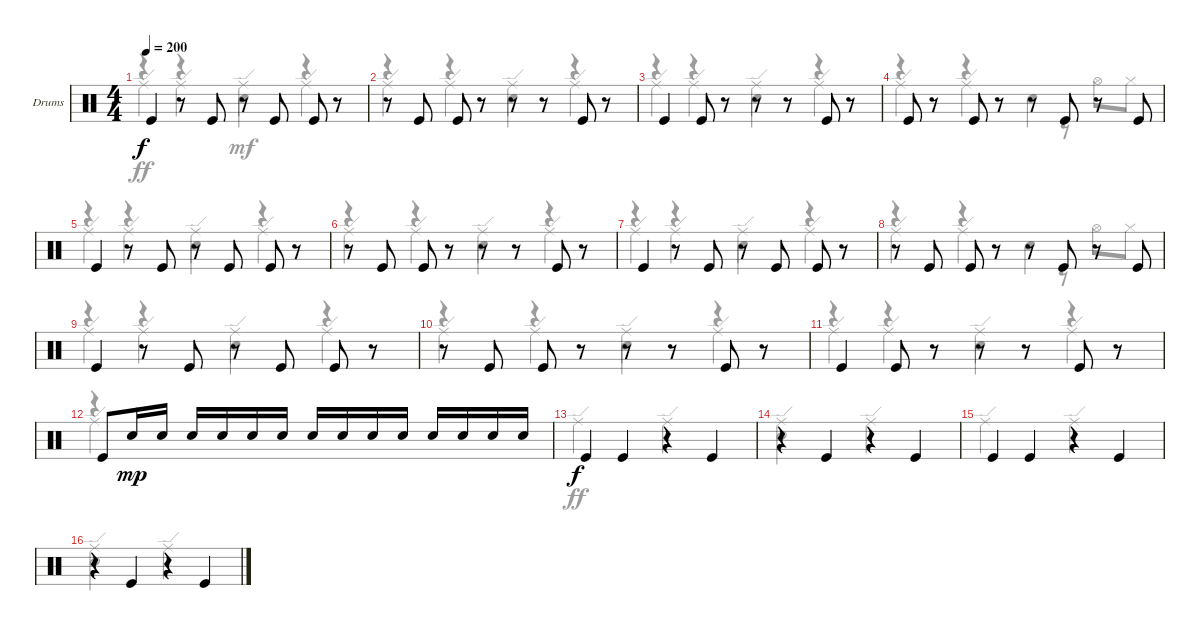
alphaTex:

\defaultSystemsLayout 4
\bracketExtendMode groupsimilarinstruments
\firstSystemTrackNameOrientation horizontal
\otherSystemsTrackNameOrientation horizontal
\track ("Drum" "Drums") {instrument percussion}
\staff {score}
\articulation defaults
\voice
\ts (4 4)
\tempo 200
\clef neutral
\ks c "Kick (hit)".4{dy f}
r.8 "Kick (hit)".8 r.8 "Kick (hit)".8 "Kick (hit)".8 r.8 |
r.8 "Kick (hit)".8 "Kick (hit)".8 r.8 r.8 r.8 "Kick (hit)".8 r.8 |
"Kick (hit)".4 "Kick (hit)".8 r.8 r.8 r.8 "Kick (hit)".8 r.8 |
"Kick (hit)".8 r.8 "Kick (hit)".8 r.8 r.8 "Kick (hit)".8 r.8 "Kick (hit)".8 |
"Kick (hit)".4 r.8 "Kick (hit)".8 r.8 "Kick (hit)".8 "Kick (hit)".8 r.8 |
r.8 "Kick (hit)".8 "Kick (hit)".8 r.8 r.8 r.8 "Kick (hit)".8 r.8 |
"Kick (hit)".4 r.8 "Kick (hit)".8 r.8 "Kick (hit)".8 "Kick (hit)".8 r.8 |
r.8 "Kick (hit)".8 "Kick (hit)".8 r.8 r.8 "Kick (hit)".8 r.8 "Kick (hit)".8 |
"Kick (hit)".4 r.8 "Kick (hit)".8 r.8 "Kick (hit)".8 "Kick (hit)".8 r.8 |
r.8 "Kick (hit)".8 "Kick (hit)".8 r.8 r.8 r.8 "Kick (hit)".8 r.8 |
"Kick (hit)".4 "Kick (hit)".8 r.8 r.8 r.8 "Kick (hit)".8 r.8 |
"Kick (hit)".8 "Snare (hit) 2".16{dy mp} "Snare (hit) 2".16 "Snare (hit) 2".16 "Snare (hit) 2".16 "Snare (hit) 2".16 "Snare (hit) 2".16 "Snare (hit) 2".16 "Snare (hit) 2".16 "Snare (hit) 2".16 "Snare (hit) 2".16 "Snare (hit) 2".16 "Snare (hit) 2".16 "Snare (hit) 2".16 "Snare (hit) 2".16 |
"Kick (hit)".4{dy f} "Kick (hit)".4 r.4 "Kick (hit)".4 |
r.4 "Kick (hit)".4 r.4 "Kick (hit)".4 |
"Kick (hit)".4 "Kick (hit)".4 r.4 "Kick (hit)".4 |
r.4 "Kick (hit)".4 r.4 "Kick (hit)".4
\voice
\clef neutral
\ottava regular
\simile none
\ks c
r.4{dy mf} r.4 "Snare (hit) 2".4 r.4 |
r.4 r.4 "Snare (hit) 2".4 r.4 |
r.4 r.4 "Snare (hit) 2".4 r.4 |
r.4 r.4 "Snare (hit) 2".4 |
r.4 r.4 "Snare (hit) 2".4 r.4 |
r.4 r.4 "Snare (hit) 2".4 r.4 |
r.4 r.4 "Snare (hit) 2".4 r.4 |
r.4 r.4 "Snare (hit) 2".4 |
r.4 r.4 "Snare (hit) 2".4 r.4 |
r.4 r.4 "Snare (hit) 2".4 r.4 |
r.4 r.4 "Snare (hit) 2".4 r.4 |
r.4 |
"Ride (edge)".2{dy ff} "Ride (edge)".2 |
("Snare (hit) 2" "Ride (edge)").2 "Ride (edge)".2 |
"Ride (edge)".2 "Ride (edge)".2 |
("Snare (hit) 2" "Ride (edge)").2 "Ride (edge)".2
\voice
\clef neutral
\ottava regular
\simile none
\ks c "Ride (edge)".4{dy ff} "Ride (edge)".4 "Ride (edge)".4 "Ride (edge)".4
|
"Ride (edge)".4 "Ride (edge)".4 "Ride (edge)".4 "Ride (edge)".4 |
"Ride (edge)".4 "Ride (edge)".4 "Ride (edge)".4 "Ride (edge)".4 |
"Ride (edge)".4 "Ride (edge)".4 r.8 r.8 "Hi-Hat (open)".8 "Hi-Hat (closed)".8 |
"Ride (edge)".4 "Ride (edge)".4 "Ride (edge)".4 "Ride (edge)".4 |
"Ride (edge)".4 "Ride (edge)".4 "Ride (edge)".4 "Ride (edge)".4 |
"Ride (edge)".4 "Ride (edge)".4 "Ride (edge)".4 "Ride (edge)".4 |
"Ride (edge)".4 "Ride (edge)".4 r.8 r.8 "Hi-Hat (open)".8 "Hi-Hat (closed)".8 |
"Ride (edge)".4 "Ride (edge)".4 "Ride (edge)".4 "Ride (edge)".4 |
"Ride (edge)".4 "Ride (edge)".4 "Ride (edge)".4 "Ride (edge)".4 |
"Ride (edge)".4 "Ride (edge)".4 "Ride (edge)".4 "Ride (edge)".4 |
"Ride (edge)".4 |
|
|
|
